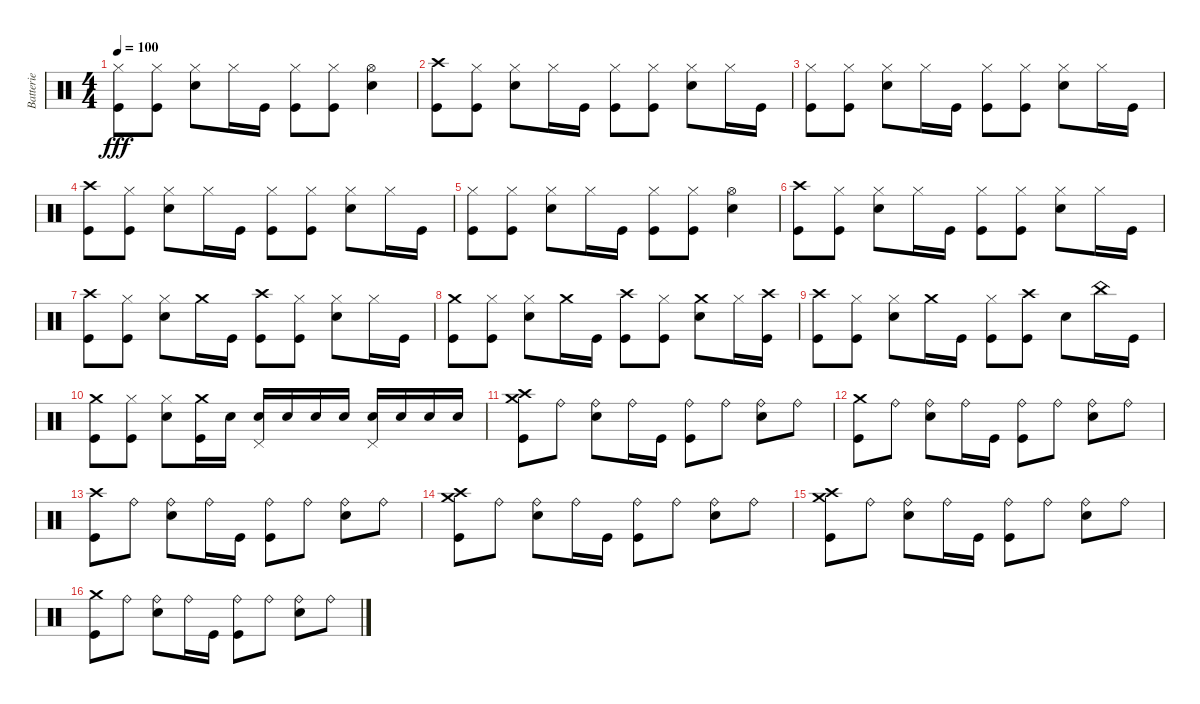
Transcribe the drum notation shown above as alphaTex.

\track ("Batterie" "Batterie") {instrument percussion}
\staff {score}
\articulation defaults
\ts (4 4)
\tempo 100
\clef neutral
\ks c
("Hi-Hat (closed)" "Kick (hit)").8{dy fff} ("Hi-Hat (closed)" "Kick (hit)").8 ("Hi-Hat (closed)" "Electric Snare (hit)").8 "Hi-Hat (closed)".16 "Kick (hit)".16 ("Hi-Hat (closed)" "Kick (hit)").8 ("Hi-Hat (closed)" "Kick (hit)").8 ("Hi-Hat (open)" "Electric Snare (hit)").4 |
("Crash high (hit)" "Kick (hit)").8 ("Hi-Hat (closed)" "Kick (hit)").8 ("Hi-Hat (closed)" "Electric Snare (hit)").8 "Hi-Hat (closed)".16 "Kick (hit)".16 ("Hi-Hat (closed)" "Kick (hit)").8 ("Hi-Hat (closed)" "Kick (hit)").8 ("Hi-Hat (closed)" "Electric Snare (hit)").8 "Hi-Hat (closed)".16 "Kick (hit)".16 |
("Hi-Hat (closed)" "Kick (hit)").8 ("Hi-Hat (closed)" "Kick (hit)").8 ("Hi-Hat (closed)" "Electric Snare (hit)").8 "Hi-Hat (closed)".16 "Kick (hit)".16 ("Hi-Hat (closed)" "Kick (hit)").8 ("Hi-Hat (closed)" "Kick (hit)").8 ("Hi-Hat (closed)" "Electric Snare (hit)").8 "Hi-Hat (closed)".16 "Kick (hit)".16 |
("Crash high (hit)" "Kick (hit)").8 ("Hi-Hat (closed)" "Kick (hit)").8 ("Hi-Hat (closed)" "Electric Snare (hit)").8 "Hi-Hat (closed)".16 "Kick (hit)".16 ("Hi-Hat (closed)" "Kick (hit)").8 ("Hi-Hat (closed)" "Kick (hit)").8 ("Hi-Hat (closed)" "Electric Snare (hit)").8 "Hi-Hat (closed)".16 "Kick (hit)".16 |
("Hi-Hat (closed)" "Kick (hit)").8 ("Hi-Hat (closed)" "Kick (hit)").8 ("Hi-Hat (closed)" "Electric Snare (hit)").8 "Hi-Hat (closed)".16 "Kick (hit)".16 ("Hi-Hat (closed)" "Kick (hit)").8 ("Hi-Hat (closed)" "Kick (hit)").8 ("Hi-Hat (open)" "Electric Snare (hit)").4 |
("Crash high (hit)" "Kick (hit)").8 ("Hi-Hat (closed)" "Kick (hit)").8 ("Hi-Hat (closed)" "Electric Snare (hit)").8 "Hi-Hat (closed)".16 "Kick (hit)".16 ("Hi-Hat (closed)" "Kick (hit)").8 ("Hi-Hat (closed)" "Kick (hit)").8 ("Hi-Hat (closed)" "Electric Snare (hit)").8 "Hi-Hat (closed)".16 "Kick (hit)".16 |
("Crash high (hit)" "Kick (hit)").8 ("Hi-Hat (closed)" "Kick (hit)").8 ("Hi-Hat (closed)" "Electric Snare (hit)").8 "Crash medium (hit)".16 "Kick (hit)".16 ("Crash high (hit)" "Kick (hit)").8 ("Hi-Hat (closed)" "Kick (hit)").8 ("Hi-Hat (closed)" "Electric Snare (hit)").8 "Hi-Hat (closed)".16 "Kick (hit)".16 |
("Crash medium (hit)" "Kick (hit)").8 ("Hi-Hat (closed)" "Kick (hit)").8 ("Hi-Hat (closed)" "Electric Snare (hit)").8 "Crash medium (hit)".16 "Kick (hit)".16 ("Crash high (hit)" "Kick (hit)").8 ("Hi-Hat (closed)" "Kick (hit)").8 ("Crash medium (hit)" "Electric Snare (hit)").8 "Hi-Hat (closed)".16 ("Crash high (hit)" "Kick (hit)").16 |
("Crash high (hit)" "Kick (hit)").8 ("Hi-Hat (closed)" "Kick (hit)").8 ("Hi-Hat (closed)" "Electric Snare (hit)").8 "Crash medium (hit)".16 "Kick (hit)".16 ("Hi-Hat (closed)" "Kick (hit)").8 ("Crash high (hit)" "Kick (hit)").8 "Electric Snare (hit)".8 "China (hit)".16 "Kick (hit)".16 |
("Crash medium (hit)" "Kick (hit)").8 ("Hi-Hat (closed)" "Kick (hit)").8 ("Hi-Hat (closed)" "Electric Snare (hit)").8 ("Crash medium (hit)" "Kick (hit)").16 "Electric Snare (hit)".16 ("Electric Snare (hit)" "Pedal Hi-Hat (hit)").16 "Electric Snare (hit)".16 "Electric Snare (hit)".16 "Electric Snare (hit)".16 ("Electric Snare (hit)" "Pedal Hi-Hat (hit)").16 "Electric Snare (hit)".16 "Electric Snare (hit)".16 "Electric Snare (hit)".16 |
("Crash high (hit)" "Kick (hit)" "Crash medium (hit)").8 "Ride (bell)".8 ("Ride (bell)" "Electric Snare (hit)").8 "Ride (bell)".16 "Kick (hit)".16 ("Ride (bell)" "Kick (hit)").8 "Ride (bell)".8 ("Ride (bell)" "Electric Snare (hit)").8 "Ride (bell)".8 |
("Crash medium (hit)" "Kick (hit)").8 "Ride (bell)".8 ("Ride (bell)" "Electric Snare (hit)").8 "Ride (bell)".16 "Kick (hit)".16 ("Ride (bell)" "Kick (hit)").8 "Ride (bell)".8 ("Ride (bell)" "Electric Snare (hit)").8 "Ride (bell)".8 |
("Crash high (hit)" "Kick (hit)").8 "Ride (bell)".8 ("Ride (bell)" "Electric Snare (hit)").8 "Ride (bell)".16 "Kick (hit)".16 ("Ride (bell)" "Kick (hit)").8 "Ride (bell)".8 ("Ride (bell)" "Electric Snare (hit)").8 "Ride (bell)".8 |
("Crash high (hit)" "Kick (hit)" "Crash medium (hit)").8 "Ride (bell)".8 ("Ride (bell)" "Electric Snare (hit)").8 "Ride (bell)".16 "Kick (hit)".16 ("Ride (bell)" "Kick (hit)").8 "Ride (bell)".8 ("Ride (bell)" "Electric Snare (hit)").8 "Ride (bell)".8 |
("Crash high (hit)" "Kick (hit)" "Crash medium (hit)").8 "Ride (bell)".8 ("Ride (bell)" "Electric Snare (hit)").8 "Ride (bell)".16 "Kick (hit)".16 ("Ride (bell)" "Kick (hit)").8 "Ride (bell)".8 ("Ride (bell)" "Electric Snare (hit)").8 "Ride (bell)".8 |
("Crash medium (hit)" "Kick (hit)").8 "Ride (bell)".8 ("Ride (bell)" "Electric Snare (hit)").8 "Ride (bell)".16 "Kick (hit)".16 ("Ride (bell)" "Kick (hit)").8 "Ride (bell)".8 ("Ride (bell)" "Electric Snare (hit)").8 "Ride (bell)".8
